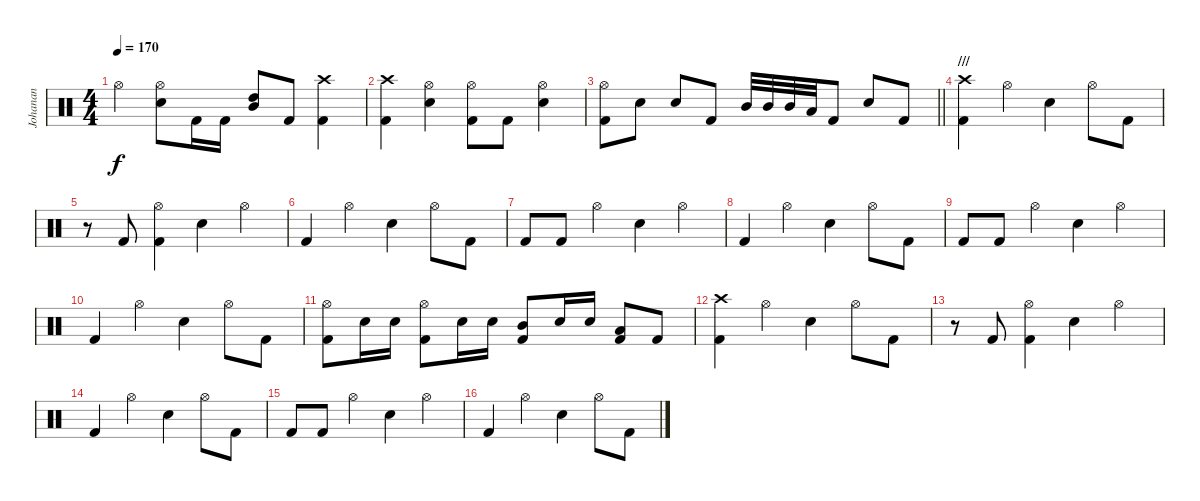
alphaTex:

\track ("Johanan" "Johanan") {instrument percussion}
\staff {score}
\articulation defaults
\ts (4 4)
\tempo 170
\clef neutral
\ks c "Hi-Hat (open)".4{dy f}
("Hi-Hat (open)" "Electric Snare (hit)").8 "Kick (hit) 2".16 "Kick (hit) 2".16 ("Mid Tom (hit)" "High Tom (hit)").8 "Kick (hit) 2".8 ("Crash high (hit)" "Kick (hit) 2").4 |
("Crash high (hit)" "Kick (hit) 2").4 ("Hi-Hat (open)" "Electric Snare (hit)").4 ("Hi-Hat (open)" "Kick (hit) 2").8 "Kick (hit) 2".8 ("Hi-Hat (open)" "Electric Snare (hit)").4 |
\barLineRight lightlight
("Hi-Hat (open)" "Kick (hit) 2").8 "Electric Snare (hit)".8 "Electric Snare (hit)".8 "Kick (hit) 2".8 "Mid Tom (hit)".32 "Mid Tom (hit)".32 "Mid Tom (hit)".32 "Low Tom (hit)".32 "Kick (hit) 2".8 "Electric Snare (hit)".8 "Kick (hit) 2".8 |
\section ("" "///")
("Crash high (hit)" "Kick (hit) 2").4 "Hi-Hat (open)".4 "Electric Snare (hit)".4 "Hi-Hat (open)".8 "Kick (hit) 2".8 |
r.8 "Kick (hit) 2".8 ("Hi-Hat (open)" "Kick (hit) 2").4 "Electric Snare (hit)".4 "Hi-Hat (open)".4 |
"Kick (hit) 2".4 "Hi-Hat (open)".4 "Electric Snare (hit)".4 "Hi-Hat (open)".8 "Kick (hit) 2".8 |
"Kick (hit) 2".8 "Kick (hit) 2".8 "Hi-Hat (open)".4 "Electric Snare (hit)".4 "Hi-Hat (open)".4 |
"Kick (hit) 2".4 "Hi-Hat (open)".4 "Electric Snare (hit)".4 "Hi-Hat (open)".8 "Kick (hit) 2".8 |
"Kick (hit) 2".8 "Kick (hit) 2".8 "Hi-Hat (open)".4 "Electric Snare (hit)".4 "Hi-Hat (open)".4 |
"Kick (hit) 2".4 "Hi-Hat (open)".4 "Electric Snare (hit)".4 "Hi-Hat (open)".8 "Kick (hit) 2".8 |
("Hi-Hat (open)" "Kick (hit) 2").8 "Electric Snare (hit)".16 "Electric Snare (hit)".16 ("Hi-Hat (open)" "Kick (hit) 2").8 "Electric Snare (hit)".16 "Electric Snare (hit)".16 ("Mid Tom (hit)" "Kick (hit) 2").8 "Electric Snare (hit)".16 "Electric Snare (hit)".16 ("Low Tom (hit)" "Kick (hit) 2").8 "Kick (hit) 2".8 |
("Crash high (hit)" "Kick (hit) 2").4 "Hi-Hat (open)".4 "Electric Snare (hit)".4 "Hi-Hat (open)".8 "Kick (hit) 2".8 |
r.8 "Kick (hit) 2".8 ("Hi-Hat (open)" "Kick (hit) 2").4 "Electric Snare (hit)".4 "Hi-Hat (open)".4 |
"Kick (hit) 2".4 "Hi-Hat (open)".4 "Electric Snare (hit)".4 "Hi-Hat (open)".8 "Kick (hit) 2".8 |
"Kick (hit) 2".8 "Kick (hit) 2".8 "Hi-Hat (open)".4 "Electric Snare (hit)".4 "Hi-Hat (open)".4 |
"Kick (hit) 2".4 "Hi-Hat (open)".4 "Electric Snare (hit)".4 "Hi-Hat (open)".8 "Kick (hit) 2".8
